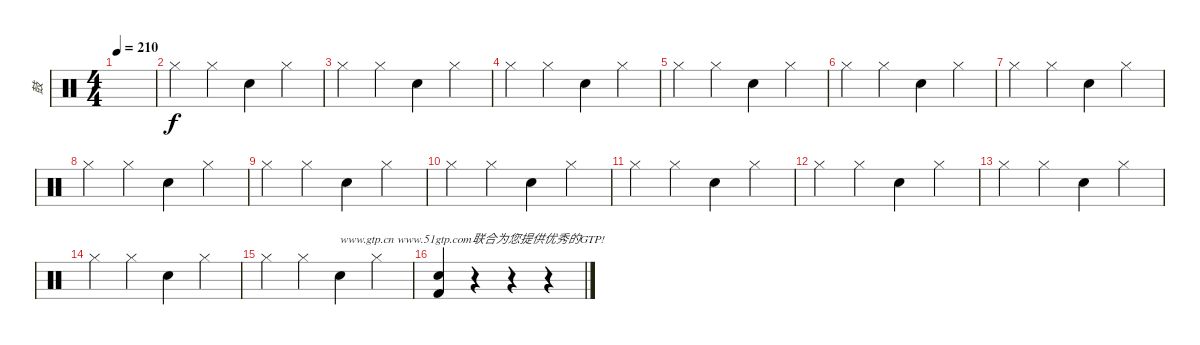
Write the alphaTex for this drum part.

\track ("鼓" "鼓") {instrument percussion}
\staff {score}
\articulation defaults
\ts (4 4)
\tempo 210
\clef neutral
\ks c
|
"Hi-Hat (closed)".4 "Hi-Hat (closed)".4 "Electric Snare (hit)".4 "Hi-Hat (closed)".4 |
"Hi-Hat (closed)".4 "Hi-Hat (closed)".4 "Electric Snare (hit)".4 "Hi-Hat (closed)".4 |
"Hi-Hat (closed)".4 "Hi-Hat (closed)".4 "Electric Snare (hit)".4 "Hi-Hat (closed)".4 |
"Hi-Hat (closed)".4 "Hi-Hat (closed)".4 "Electric Snare (hit)".4 "Hi-Hat (closed)".4 |
"Hi-Hat (closed)".4 "Hi-Hat (closed)".4 "Electric Snare (hit)".4 "Hi-Hat (closed)".4 |
"Hi-Hat (closed)".4 "Hi-Hat (closed)".4 "Electric Snare (hit)".4 "Hi-Hat (closed)".4 |
"Hi-Hat (closed)".4 "Hi-Hat (closed)".4 "Electric Snare (hit)".4 "Hi-Hat (closed)".4 |
"Hi-Hat (closed)".4 "Hi-Hat (closed)".4 "Electric Snare (hit)".4 "Hi-Hat (closed)".4 |
"Hi-Hat (closed)".4 "Hi-Hat (closed)".4 "Electric Snare (hit)".4 "Hi-Hat (closed)".4 |
"Hi-Hat (closed)".4 "Hi-Hat (closed)".4 "Electric Snare (hit)".4 "Hi-Hat (closed)".4 |
"Hi-Hat (closed)".4 "Hi-Hat (closed)".4 "Electric Snare (hit)".4 "Hi-Hat (closed)".4 |
"Hi-Hat (closed)".4 "Hi-Hat (closed)".4 "Electric Snare (hit)".4 "Hi-Hat (closed)".4 |
"Hi-Hat (closed)".4 "Hi-Hat (closed)".4 "Electric Snare (hit)".4 "Hi-Hat (closed)".4 |
"Hi-Hat (closed)".4 "Hi-Hat (closed)".4 "Electric Snare (hit)".4{txt "www.gtp.cn www.51gtp.com联合为您提供优秀的GTP!"} "Hi-Hat (closed)".4 |
("Electric Snare (hit)" "Kick (hit) 2").4 r.4 r.4 r.4
